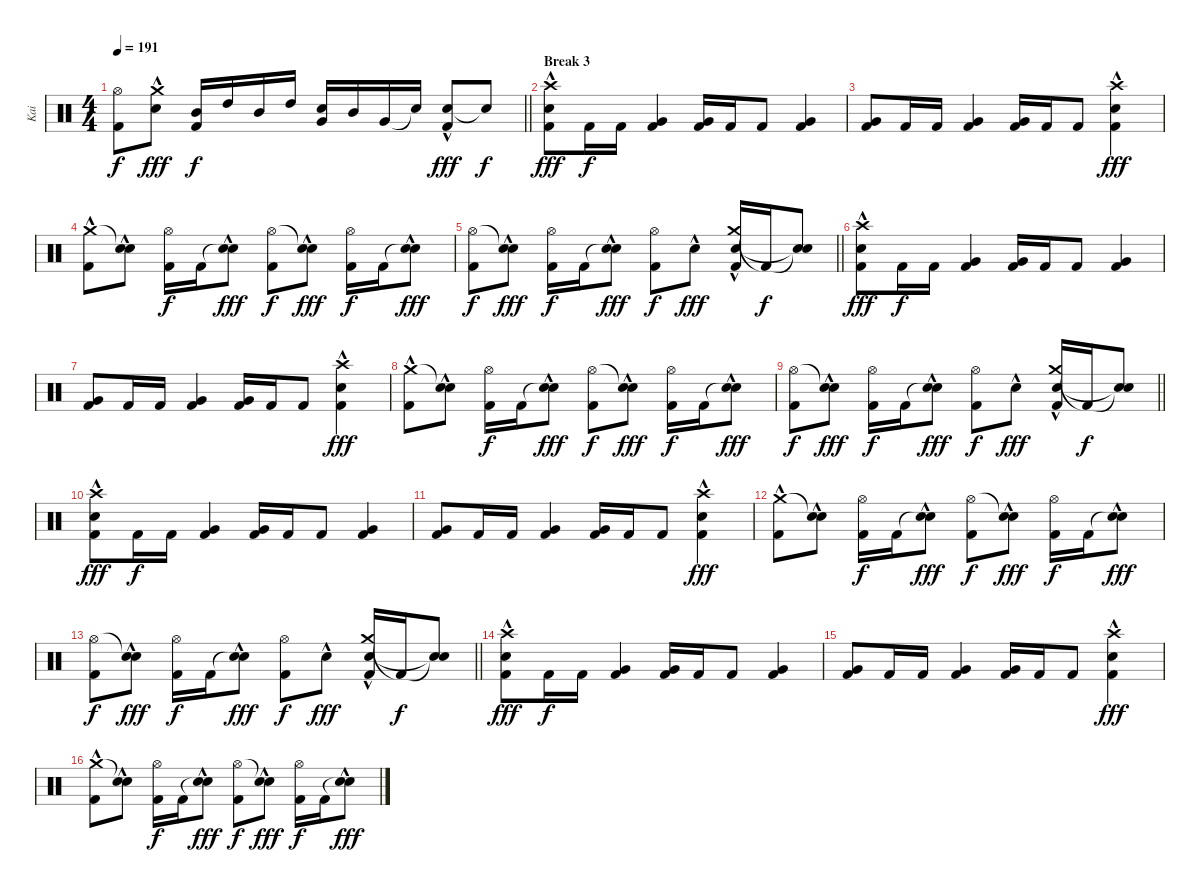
\track ("Kai" "Kai") {instrument percussion}
\staff {score}
\articulation defaults
\ts (4 4)
\tempo 191
\clef neutral
\barLineRight lightlight
\ks c
("Hi-Hat (open)" "Kick (hit) 2").8{dy f} ("Crash medium (hit)"{hac} "Snare (hit) 2"{hac}).8{dy fff} ("Mid Tom (hit)" "Kick (hit) 2").16{dy f} "High Tom (hit)".16 "Mid Tom (hit)".16 "High Tom (hit)".16 ("Very Low Tom (hit)" "Snare (hit) 2").16 "Mid Tom (hit)".16 "Very Low Tom (hit)".16 "Snare (hit)"{t}.16 ("Snare (hit) 2"{hac} "Kick (hit) 2").8{dy fff} "Snare (hit)"{t}.8{dy f} |
\section ("" "Break 3")
("Crash high (hit)"{hac} "Snare (hit) 2" "Kick (hit) 2").8{dy fff} "Kick (hit) 2".16{dy f} "Kick (hit) 2".16 ("Very Low Tom (hit)" "Kick (hit) 2").4 ("Very Low Tom (hit)" "Kick (hit) 2").16 "Kick (hit) 2".16 "Kick (hit) 2".8 ("Very Low Tom (hit)" "Kick (hit) 2").4 |
("Very Low Tom (hit)" "Kick (hit) 2").8 "Kick (hit) 2".16 "Kick (hit) 2".16 ("Very Low Tom (hit)" "Kick (hit) 2").4 ("Very Low Tom (hit)" "Kick (hit) 2").16 "Kick (hit) 2".16 "Kick (hit) 2".8 ("Crash high (hit)"{hac} "Snare (hit) 2"{hac} "Kick (hit) 2").4{dy fff} |
("Crash medium (hit)"{hac} "Kick (hit) 2").8 ("Snare (hit)"{t} "Snare (hit) 2"{hac}).8 ("Hi-Hat (open)" "Kick (hit) 2").16{dy f} "Kick (hit) 2".16 ("Snare (hit)"{t} "Snare (hit) 2"{hac}).8{dy fff} ("Hi-Hat (open)" "Kick (hit) 2").8{dy f} ("Snare (hit)"{t} "Snare (hit) 2"{hac}).8{dy fff} ("Hi-Hat (open)" "Kick (hit) 2").16{dy f} "Kick (hit) 2".16 ("Snare (hit)"{t} "Snare (hit) 2"{hac}).8{dy fff} |
\barLineRight lightlight
("Hi-Hat (open)" "Kick (hit) 2").8{dy f} ("Snare (hit)"{t} "Snare (hit) 2"{hac}).8{dy fff} ("Hi-Hat (open)" "Kick (hit) 2").16{dy f} "Kick (hit) 2".16 ("Snare (hit)"{t} "Snare (hit) 2"{hac}).8{dy fff} ("Hi-Hat (open)" "Kick (hit) 2").8{dy f} "Snare (hit) 2"{hac}.8{dy fff} ("Crash medium (hit)"{hac} "Snare (hit) 2"{hac} "Kick (hit) 2").16 "Kick (hit) 2"{t}.16{dy f} ("Snare (hit)"{t} "Snare (hit) 2"{t}).8 |
("Crash high (hit)"{hac} "Snare (hit) 2" "Kick (hit) 2").8{dy fff} "Kick (hit) 2".16{dy f} "Kick (hit) 2".16 ("Very Low Tom (hit)" "Kick (hit) 2").4 ("Very Low Tom (hit)" "Kick (hit) 2").16 "Kick (hit) 2".16 "Kick (hit) 2".8 ("Very Low Tom (hit)" "Kick (hit) 2").4 |
("Very Low Tom (hit)" "Kick (hit) 2").8 "Kick (hit) 2".16 "Kick (hit) 2".16 ("Very Low Tom (hit)" "Kick (hit) 2").4 ("Very Low Tom (hit)" "Kick (hit) 2").16 "Kick (hit) 2".16 "Kick (hit) 2".8 ("Crash high (hit)"{hac} "Snare (hit) 2"{hac} "Kick (hit) 2").4{dy fff} |
("Crash medium (hit)"{hac} "Kick (hit) 2").8 ("Snare (hit)"{t} "Snare (hit) 2"{hac}).8 ("Hi-Hat (open)" "Kick (hit) 2").16{dy f} "Kick (hit) 2".16 ("Snare (hit)"{t} "Snare (hit) 2"{hac}).8{dy fff} ("Hi-Hat (open)" "Kick (hit) 2").8{dy f} ("Snare (hit)"{t} "Snare (hit) 2"{hac}).8{dy fff} ("Hi-Hat (open)" "Kick (hit) 2").16{dy f} "Kick (hit) 2".16 ("Snare (hit)"{t} "Snare (hit) 2"{hac}).8{dy fff} |
\barLineRight lightlight
("Hi-Hat (open)" "Kick (hit) 2").8{dy f} ("Snare (hit)"{t} "Snare (hit) 2"{hac}).8{dy fff} ("Hi-Hat (open)" "Kick (hit) 2").16{dy f} "Kick (hit) 2".16 ("Snare (hit)"{t} "Snare (hit) 2"{hac}).8{dy fff} ("Hi-Hat (open)" "Kick (hit) 2").8{dy f} "Snare (hit) 2"{hac}.8{dy fff} ("Crash medium (hit)"{hac} "Snare (hit) 2"{hac} "Kick (hit) 2").16 "Kick (hit) 2"{t}.16{dy f} ("Snare (hit)"{t} "Snare (hit) 2"{t}).8 |
("Crash high (hit)"{hac} "Snare (hit) 2" "Kick (hit) 2").8{dy fff} "Kick (hit) 2".16{dy f} "Kick (hit) 2".16 ("Very Low Tom (hit)" "Kick (hit) 2").4 ("Very Low Tom (hit)" "Kick (hit) 2").16 "Kick (hit) 2".16 "Kick (hit) 2".8 ("Very Low Tom (hit)" "Kick (hit) 2").4 |
("Very Low Tom (hit)" "Kick (hit) 2").8 "Kick (hit) 2".16 "Kick (hit) 2".16 ("Very Low Tom (hit)" "Kick (hit) 2").4 ("Very Low Tom (hit)" "Kick (hit) 2").16 "Kick (hit) 2".16 "Kick (hit) 2".8 ("Crash high (hit)"{hac} "Snare (hit) 2"{hac} "Kick (hit) 2").4{dy fff} |
("Crash medium (hit)"{hac} "Kick (hit) 2").8 ("Snare (hit)"{t} "Snare (hit) 2"{hac}).8 ("Hi-Hat (open)" "Kick (hit) 2").16{dy f} "Kick (hit) 2".16 ("Snare (hit)"{t} "Snare (hit) 2"{hac}).8{dy fff} ("Hi-Hat (open)" "Kick (hit) 2").8{dy f} ("Snare (hit)"{t} "Snare (hit) 2"{hac}).8{dy fff} ("Hi-Hat (open)" "Kick (hit) 2").16{dy f} "Kick (hit) 2".16 ("Snare (hit)"{t} "Snare (hit) 2"{hac}).8{dy fff} |
\barLineRight lightlight
("Hi-Hat (open)" "Kick (hit) 2").8{dy f} ("Snare (hit)"{t} "Snare (hit) 2"{hac}).8{dy fff} ("Hi-Hat (open)" "Kick (hit) 2").16{dy f} "Kick (hit) 2".16 ("Snare (hit)"{t} "Snare (hit) 2"{hac}).8{dy fff} ("Hi-Hat (open)" "Kick (hit) 2").8{dy f} "Snare (hit) 2"{hac}.8{dy fff} ("Crash medium (hit)"{hac} "Snare (hit) 2"{hac} "Kick (hit) 2").16 "Kick (hit) 2"{t}.16{dy f} ("Snare (hit)"{t} "Snare (hit) 2"{t}).8 |
("Crash high (hit)"{hac} "Snare (hit) 2" "Kick (hit) 2").8{dy fff} "Kick (hit) 2".16{dy f} "Kick (hit) 2".16 ("Very Low Tom (hit)" "Kick (hit) 2").4 ("Very Low Tom (hit)" "Kick (hit) 2").16 "Kick (hit) 2".16 "Kick (hit) 2".8 ("Very Low Tom (hit)" "Kick (hit) 2").4 |
("Very Low Tom (hit)" "Kick (hit) 2").8 "Kick (hit) 2".16 "Kick (hit) 2".16 ("Very Low Tom (hit)" "Kick (hit) 2").4 ("Very Low Tom (hit)" "Kick (hit) 2").16 "Kick (hit) 2".16 "Kick (hit) 2".8 ("Crash high (hit)"{hac} "Snare (hit) 2"{hac} "Kick (hit) 2").4{dy fff} |
("Crash medium (hit)"{hac} "Kick (hit) 2").8 ("Snare (hit)"{t} "Snare (hit) 2"{hac}).8 ("Hi-Hat (open)" "Kick (hit) 2").16{dy f} "Kick (hit) 2".16 ("Snare (hit)"{t} "Snare (hit) 2"{hac}).8{dy fff} ("Hi-Hat (open)" "Kick (hit) 2").8{dy f} ("Snare (hit)"{t} "Snare (hit) 2"{hac}).8{dy fff} ("Hi-Hat (open)" "Kick (hit) 2").16{dy f} "Kick (hit) 2".16 ("Snare (hit)"{t} "Snare (hit) 2"{hac}).8{dy fff}
